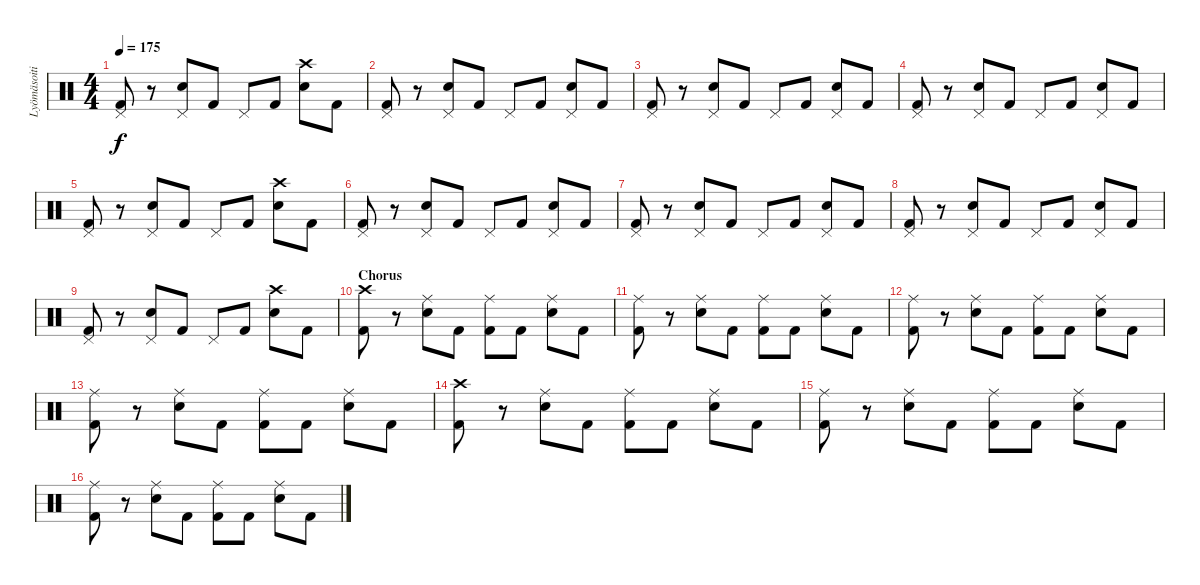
\track ("Lyömäsoitin" "Lyömäsoiti") {instrument percussion}
\staff {score}
\articulation defaults
\ts (4 4)
\tempo 175
\clef neutral
\ks c
("Pedal Hi-Hat (hit)" "Kick (hit) 2").8{dy f} r.8 ("Pedal Hi-Hat (hit)" "Electric Snare (hit)").8 "Kick (hit) 2".8 "Pedal Hi-Hat (hit)".8 "Kick (hit) 2".8 ("Crash high (hit)" "Electric Snare (hit)").8 "Kick (hit) 2".8 |
("Pedal Hi-Hat (hit)" "Kick (hit) 2").8 r.8 ("Pedal Hi-Hat (hit)" "Electric Snare (hit)").8 "Kick (hit) 2".8 "Pedal Hi-Hat (hit)".8 "Kick (hit) 2".8 ("Pedal Hi-Hat (hit)" "Electric Snare (hit)").8 "Kick (hit) 2".8 |
("Pedal Hi-Hat (hit)" "Kick (hit) 2").8 r.8 ("Pedal Hi-Hat (hit)" "Electric Snare (hit)").8 "Kick (hit) 2".8 "Pedal Hi-Hat (hit)".8 "Kick (hit) 2".8 ("Pedal Hi-Hat (hit)" "Electric Snare (hit)").8 "Kick (hit) 2".8 |
("Pedal Hi-Hat (hit)" "Kick (hit) 2").8 r.8 ("Pedal Hi-Hat (hit)" "Electric Snare (hit)").8 "Kick (hit) 2".8 "Pedal Hi-Hat (hit)".8 "Kick (hit) 2".8 ("Pedal Hi-Hat (hit)" "Electric Snare (hit)").8 "Kick (hit) 2".8 |
("Pedal Hi-Hat (hit)" "Kick (hit) 2").8 r.8 ("Pedal Hi-Hat (hit)" "Electric Snare (hit)").8 "Kick (hit) 2".8 "Pedal Hi-Hat (hit)".8 "Kick (hit) 2".8 ("Crash high (hit)" "Electric Snare (hit)").8 "Kick (hit) 2".8 |
("Pedal Hi-Hat (hit)" "Kick (hit) 2").8 r.8 ("Pedal Hi-Hat (hit)" "Electric Snare (hit)").8 "Kick (hit) 2".8 "Pedal Hi-Hat (hit)".8 "Kick (hit) 2".8 ("Pedal Hi-Hat (hit)" "Electric Snare (hit)").8 "Kick (hit) 2".8 |
("Pedal Hi-Hat (hit)" "Kick (hit) 2").8 r.8 ("Pedal Hi-Hat (hit)" "Electric Snare (hit)").8 "Kick (hit) 2".8 "Pedal Hi-Hat (hit)".8 "Kick (hit) 2".8 ("Pedal Hi-Hat (hit)" "Electric Snare (hit)").8 "Kick (hit) 2".8 |
("Pedal Hi-Hat (hit)" "Kick (hit) 2").8 r.8 ("Pedal Hi-Hat (hit)" "Electric Snare (hit)").8 "Kick (hit) 2".8 "Pedal Hi-Hat (hit)".8 "Kick (hit) 2".8 ("Pedal Hi-Hat (hit)" "Electric Snare (hit)").8 "Kick (hit) 2".8 |
("Pedal Hi-Hat (hit)" "Kick (hit) 2").8 r.8 ("Pedal Hi-Hat (hit)" "Electric Snare (hit)").8 "Kick (hit) 2".8 "Pedal Hi-Hat (hit)".8 "Kick (hit) 2".8 ("Crash high (hit)" "Electric Snare (hit)").8 "Kick (hit) 2".8 |
\section ("" "Chorus")
("Crash high (hit)" "Kick (hit) 2").8 r.8 ("Ride (middle)" "Electric Snare (hit)").8 "Kick (hit) 2".8 ("Ride (middle)" "Kick (hit) 2").8 "Kick (hit) 2".8 ("Ride (middle)" "Electric Snare (hit)").8 "Kick (hit) 2".8 |
("Ride (middle)" "Kick (hit) 2").8 r.8 ("Ride (middle)" "Electric Snare (hit)").8 "Kick (hit) 2".8 ("Ride (middle)" "Kick (hit) 2").8 "Kick (hit) 2".8 ("Ride (middle)" "Electric Snare (hit)").8 "Kick (hit) 2".8 |
("Ride (middle)" "Kick (hit) 2").8 r.8 ("Ride (middle)" "Electric Snare (hit)").8 "Kick (hit) 2".8 ("Ride (middle)" "Kick (hit) 2").8 "Kick (hit) 2".8 ("Ride (middle)" "Electric Snare (hit)").8 "Kick (hit) 2".8 |
("Ride (middle)" "Kick (hit) 2").8 r.8 ("Ride (middle)" "Electric Snare (hit)").8 "Kick (hit) 2".8 ("Ride (middle)" "Kick (hit) 2").8 "Kick (hit) 2".8 ("Ride (middle)" "Electric Snare (hit)").8 "Kick (hit) 2".8 |
("Crash high (hit)" "Kick (hit) 2").8 r.8 ("Ride (middle)" "Electric Snare (hit)").8 "Kick (hit) 2".8 ("Ride (middle)" "Kick (hit) 2").8 "Kick (hit) 2".8 ("Ride (middle)" "Electric Snare (hit)").8 "Kick (hit) 2".8 |
("Ride (middle)" "Kick (hit) 2").8 r.8 ("Ride (middle)" "Electric Snare (hit)").8 "Kick (hit) 2".8 ("Ride (middle)" "Kick (hit) 2").8 "Kick (hit) 2".8 ("Ride (middle)" "Electric Snare (hit)").8 "Kick (hit) 2".8 |
("Ride (middle)" "Kick (hit) 2").8 r.8 ("Ride (middle)" "Electric Snare (hit)").8 "Kick (hit) 2".8 ("Ride (middle)" "Kick (hit) 2").8 "Kick (hit) 2".8 ("Ride (middle)" "Electric Snare (hit)").8 "Kick (hit) 2".8
